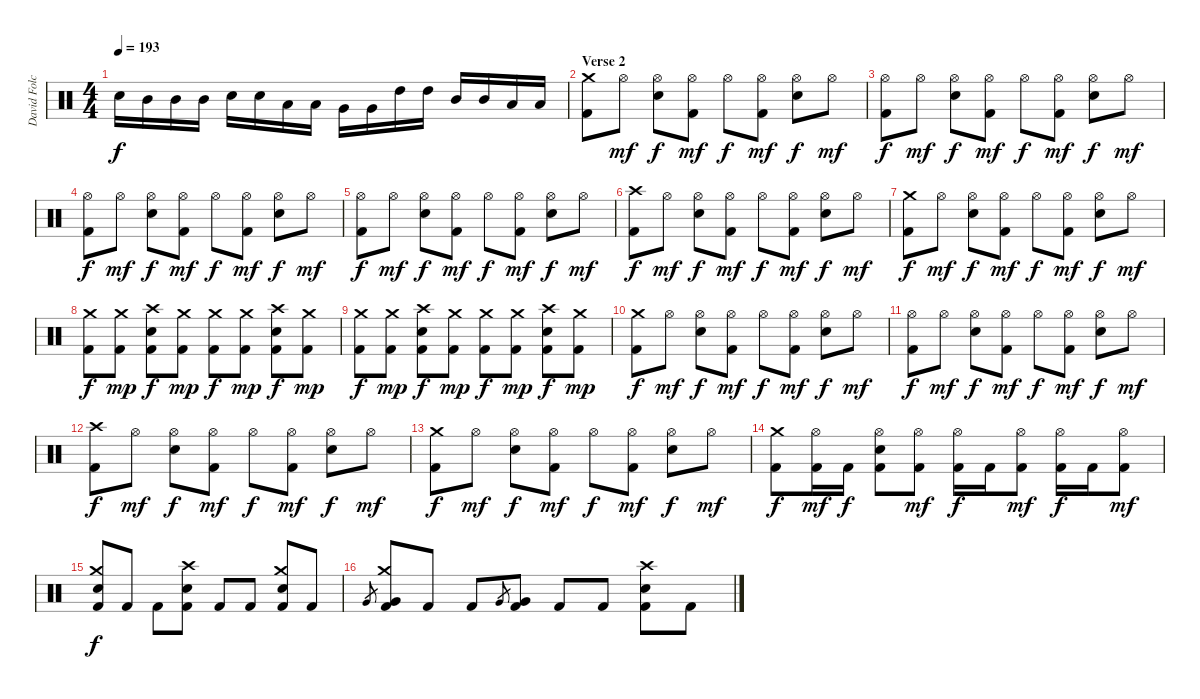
\track ("David Folchitto" "David Folc") {instrument percussion}
\staff {score}
\articulation defaults
\ts (4 4)
\tempo 193
\clef neutral
\ks c "Snare (hit) 2".16{dy f} "Mid Tom (hit)".16 "Mid Tom (hit)".16 "Mid Tom (hit)".16 "Snare (hit) 2".16 "Snare (hit) 2".16 "Low Tom (hit)".16 "Low Tom (hit)".16 "Very Low Tom (hit)".16 "Very Low Tom (hit)".16 "High Tom (hit)".16 "High Tom (hit)".16 "Mid Tom (hit)".16 "Mid Tom (hit)".16 "Low Tom (hit)".16 "Low Tom (hit)".16
|
\section ("" "Verse 2")
("Crash medium (hit)" "Kick (hit) 2").8 "Hi-Hat (open)".8{dy mf} ("Hi-Hat (open)" "Snare (hit) 2").8{dy f} ("Hi-Hat (open)" "Kick (hit) 2").8{dy mf} "Hi-Hat (open)".8{dy f} ("Hi-Hat (open)" "Kick (hit) 2").8{dy mf} ("Hi-Hat (open)" "Snare (hit) 2").8{dy f} "Hi-Hat (open)".8{dy mf} |
("Hi-Hat (open)" "Kick (hit) 2").8{dy f} "Hi-Hat (open)".8{dy mf} ("Hi-Hat (open)" "Snare (hit) 2").8{dy f} ("Hi-Hat (open)" "Kick (hit) 2").8{dy mf} "Hi-Hat (open)".8{dy f} ("Hi-Hat (open)" "Kick (hit) 2").8{dy mf} ("Hi-Hat (open)" "Snare (hit) 2").8{dy f} "Hi-Hat (open)".8{dy mf} |
("Hi-Hat (open)" "Kick (hit) 2").8{dy f} "Hi-Hat (open)".8{dy mf} ("Hi-Hat (open)" "Snare (hit) 2").8{dy f} ("Hi-Hat (open)" "Kick (hit) 2").8{dy mf} "Hi-Hat (open)".8{dy f} ("Hi-Hat (open)" "Kick (hit) 2").8{dy mf} ("Hi-Hat (open)" "Snare (hit) 2").8{dy f} "Hi-Hat (open)".8{dy mf} |
("Hi-Hat (open)" "Kick (hit) 2").8{dy f} "Hi-Hat (open)".8{dy mf} ("Hi-Hat (open)" "Snare (hit) 2").8{dy f} ("Hi-Hat (open)" "Kick (hit) 2").8{dy mf} "Hi-Hat (open)".8{dy f} ("Hi-Hat (open)" "Kick (hit) 2").8{dy mf} ("Hi-Hat (open)" "Snare (hit) 2").8{dy f} "Hi-Hat (open)".8{dy mf} |
("Crash high (hit)" "Kick (hit) 2").8{dy f} "Hi-Hat (open)".8{dy mf} ("Hi-Hat (open)" "Snare (hit) 2").8{dy f} ("Hi-Hat (open)" "Kick (hit) 2").8{dy mf} "Hi-Hat (open)".8{dy f} ("Hi-Hat (open)" "Kick (hit) 2").8{dy mf} ("Hi-Hat (open)" "Snare (hit) 2").8{dy f} "Hi-Hat (open)".8{dy mf} |
("Crash medium (hit)" "Kick (hit) 2").8{dy f} "Hi-Hat (open)".8{dy mf} ("Hi-Hat (open)" "Snare (hit) 2").8{dy f} ("Hi-Hat (open)" "Kick (hit) 2").8{dy mf} "Hi-Hat (open)".8{dy f} ("Hi-Hat (open)" "Kick (hit) 2").8{dy mf} ("Hi-Hat (open)" "Snare (hit) 2").8{dy f} "Hi-Hat (open)".8{dy mf} |
("Crash medium (hit)" "Kick (hit) 2").8{dy f} ("Crash medium (hit)" "Kick (hit) 2").8{dy mp} ("Crash high (hit)" "Snare (hit) 2" "Kick (hit) 2").8{dy f} ("Crash medium (hit)" "Kick (hit) 2").8{dy mp} ("Crash medium (hit)" "Kick (hit) 2").8{dy f} ("Crash medium (hit)" "Kick (hit) 2").8{dy mp} ("Crash high (hit)" "Snare (hit) 2" "Kick (hit) 2").8{dy f} ("Crash medium (hit)" "Kick (hit) 2").8{dy mp} |
("Crash medium (hit)" "Kick (hit) 2").8{dy f} ("Crash medium (hit)" "Kick (hit) 2").8{dy mp} ("Crash high (hit)" "Snare (hit) 2" "Kick (hit) 2").8{dy f} ("Crash medium (hit)" "Kick (hit) 2").8{dy mp} ("Crash medium (hit)" "Kick (hit) 2").8{dy f} ("Crash medium (hit)" "Kick (hit) 2").8{dy mp} ("Crash high (hit)" "Snare (hit) 2" "Kick (hit) 2").8{dy f} ("Crash medium (hit)" "Kick (hit) 2").8{dy mp} |
("Crash medium (hit)" "Kick (hit) 2").8{dy f} "Hi-Hat (open)".8{dy mf} ("Hi-Hat (open)" "Snare (hit) 2").8{dy f} ("Hi-Hat (open)" "Kick (hit) 2").8{dy mf} "Hi-Hat (open)".8{dy f} ("Hi-Hat (open)" "Kick (hit) 2").8{dy mf} ("Hi-Hat (open)" "Snare (hit) 2").8{dy f} "Hi-Hat (open)".8{dy mf} |
("Hi-Hat (open)" "Kick (hit) 2").8{dy f} "Hi-Hat (open)".8{dy mf} ("Hi-Hat (open)" "Snare (hit) 2").8{dy f} ("Hi-Hat (open)" "Kick (hit) 2").8{dy mf} "Hi-Hat (open)".8{dy f} ("Hi-Hat (open)" "Kick (hit) 2").8{dy mf} ("Hi-Hat (open)" "Snare (hit) 2").8{dy f} "Hi-Hat (open)".8{dy mf} |
("Crash high (hit)" "Kick (hit) 2").8{dy f} "Hi-Hat (open)".8{dy mf} ("Hi-Hat (open)" "Snare (hit) 2").8{dy f} ("Hi-Hat (open)" "Kick (hit) 2").8{dy mf} "Hi-Hat (open)".8{dy f} ("Hi-Hat (open)" "Kick (hit) 2").8{dy mf} ("Hi-Hat (open)" "Snare (hit) 2").8{dy f} "Hi-Hat (open)".8{dy mf} |
("Crash medium (hit)" "Kick (hit) 2").8{dy f} "Hi-Hat (open)".8{dy mf} ("Hi-Hat (open)" "Snare (hit) 2").8{dy f} ("Hi-Hat (open)" "Kick (hit) 2").8{dy mf} "Hi-Hat (open)".8{dy f} ("Hi-Hat (open)" "Kick (hit) 2").8{dy mf} ("Hi-Hat (open)" "Snare (hit) 2").8{dy f} "Hi-Hat (open)".8{dy mf} |
("Crash medium (hit)" "Kick (hit) 2").8{dy f} ("Hi-Hat (open)" "Kick (hit) 2").16{dy mf} "Kick (hit) 2".16{dy f} ("Hi-Hat (open)" "Snare (hit) 2" "Kick (hit) 2").8 ("Hi-Hat (open)" "Kick (hit) 2").8{dy mf} ("Hi-Hat (open)" "Kick (hit) 2").16{dy f} "Kick (hit) 2".16 ("Hi-Hat (open)" "Kick (hit) 2").8{dy mf} ("Hi-Hat (open)" "Kick (hit) 2").16{dy f} "Kick (hit) 2".16 ("Hi-Hat (open)" "Kick (hit) 2").8{dy mf} |
("Crash medium (hit)" "Snare (hit) 2" "Kick (hit) 2").8{dy f} "Kick (hit) 2".8 "Kick (hit) 2".8 ("Crash high (hit)" "Snare (hit) 2" "Kick (hit) 2").8 "Kick (hit) 2".8 "Kick (hit) 2".8 ("Crash medium (hit)" "Snare (hit) 2" "Kick (hit) 2").8 "Kick (hit) 2".8 |
"Very Low Tom (hit)".8{gr} ("Crash medium (hit)" "Very Low Tom (hit)" "Kick (hit) 2").8 "Kick (hit) 2".8 "Kick (hit) 2".8 "Very Low Tom (hit)".8{gr} ("Very Low Tom (hit)" "Kick (hit) 2").8 "Kick (hit) 2".8 "Kick (hit) 2".8 ("Crash high (hit)" "Snare (hit) 2" "Kick (hit) 2").8 "Kick (hit) 2".8
